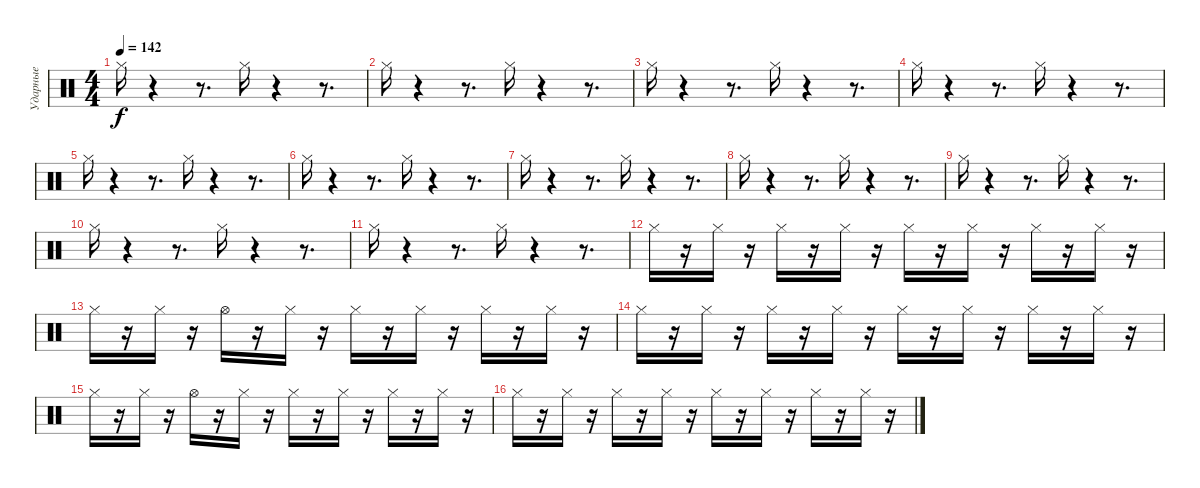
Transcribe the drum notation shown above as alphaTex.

\track ("Ударные" "Ударные") {instrument percussion}
\staff {score}
\articulation defaults
\ts (4 4)
\tempo 142
\clef neutral
\ks c "Hi-Hat (closed)".16{dy f}
r.4 r.8{d} "Hi-Hat (closed)".16 r.4 r.8{d} |
"Hi-Hat (closed)".16 r.4 r.8{d} "Hi-Hat (closed)".16 r.4 r.8{d} |
"Hi-Hat (closed)".16 r.4 r.8{d} "Hi-Hat (closed)".16 r.4 r.8{d} |
"Hi-Hat (closed)".16 r.4 r.8{d} "Hi-Hat (closed)".16 r.4 r.8{d} |
"Hi-Hat (closed)".16 r.4 r.8{d} "Hi-Hat (closed)".16 r.4 r.8{d} |
"Hi-Hat (closed)".16 r.4 r.8{d} "Hi-Hat (closed)".16 r.4 r.8{d} |
"Hi-Hat (closed)".16 r.4 r.8{d} "Hi-Hat (closed)".16 r.4 r.8{d} |
"Hi-Hat (closed)".16 r.4 r.8{d} "Hi-Hat (closed)".16 r.4 r.8{d} |
"Hi-Hat (closed)".16 r.4 r.8{d} "Hi-Hat (closed)".16 r.4 r.8{d} |
"Hi-Hat (closed)".16 r.4 r.8{d} "Hi-Hat (closed)".16 r.4 r.8{d} |
"Hi-Hat (closed)".16 r.4 r.8{d} "Hi-Hat (closed)".16 r.4 r.8{d} |
"Hi-Hat (closed)".16 r.16 "Hi-Hat (closed)".16 r.16 "Hi-Hat (closed)".16 r.16 "Hi-Hat (closed)".16 r.16 "Hi-Hat (closed)".16 r.16 "Hi-Hat (closed)".16 r.16 "Hi-Hat (closed)".16 r.16 "Hi-Hat (closed)".16 r.16 |
"Hi-Hat (closed)".16 r.16 "Hi-Hat (closed)".16 r.16 "Hi-Hat (open)".16 r.16 "Hi-Hat (closed)".16 r.16 "Hi-Hat (closed)".16 r.16 "Hi-Hat (closed)".16 r.16 "Hi-Hat (closed)".16 r.16 "Hi-Hat (closed)".16 r.16 |
"Hi-Hat (closed)".16 r.16 "Hi-Hat (closed)".16 r.16 "Hi-Hat (closed)".16 r.16 "Hi-Hat (closed)".16 r.16 "Hi-Hat (closed)".16 r.16 "Hi-Hat (closed)".16 r.16 "Hi-Hat (closed)".16 r.16 "Hi-Hat (closed)".16 r.16 |
"Hi-Hat (closed)".16 r.16 "Hi-Hat (closed)".16 r.16 "Hi-Hat (open)".16 r.16 "Hi-Hat (closed)".16 r.16 "Hi-Hat (closed)".16 r.16 "Hi-Hat (closed)".16 r.16 "Hi-Hat (closed)".16 r.16 "Hi-Hat (closed)".16 r.16 |
"Hi-Hat (closed)".16 r.16 "Hi-Hat (closed)".16 r.16 "Hi-Hat (closed)".16 r.16 "Hi-Hat (closed)".16 r.16 "Hi-Hat (closed)".16 r.16 "Hi-Hat (closed)".16 r.16 "Hi-Hat (closed)".16 r.16 "Hi-Hat (closed)".16 r.16
